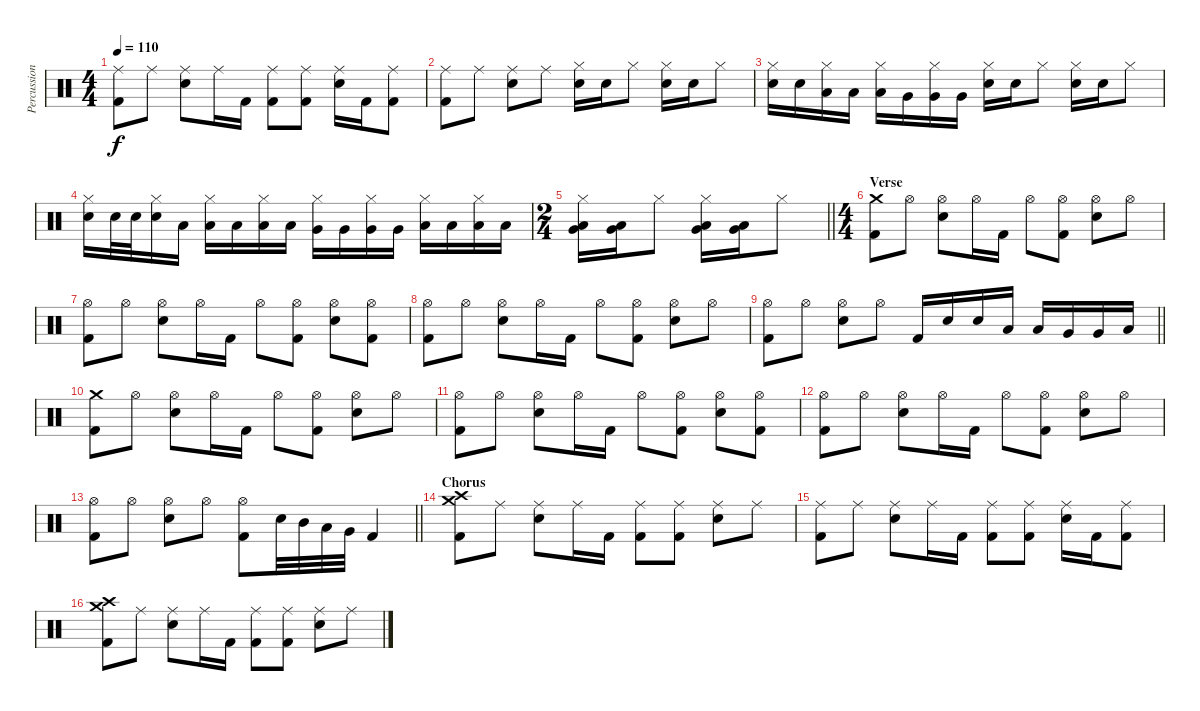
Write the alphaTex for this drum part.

\track ("Percussion" "Percussion") {instrument percussion}
\staff {score}
\articulation defaults
\ts (4 4)
\tempo 110
\clef neutral
\ks c
("Ride (middle)" "Kick (hit) 2").8{dy f} "Ride (middle)".8 ("Ride (middle)" "Snare (hit) 2").8 "Ride (middle)".16 "Kick (hit) 2".16 ("Ride (middle)" "Kick (hit) 2").8 ("Ride (middle)" "Kick (hit) 2").8 ("Ride (middle)" "Snare (hit) 2").16 "Kick (hit) 2".16 ("Ride (middle)" "Kick (hit) 2").8 |
("Ride (middle)" "Kick (hit) 2").8 "Ride (middle)".8 ("Ride (middle)" "Snare (hit) 2").8 "Ride (middle)".8 ("Hi-Hat (closed)" "Snare (hit) 2").16 "Snare (hit) 2".16 "Hi-Hat (closed)".8 ("Hi-Hat (closed)" "Snare (hit) 2").16 "Snare (hit) 2".16 "Hi-Hat (closed)".8 |
("Hi-Hat (closed)" "Snare (hit) 2").16 "Snare (hit) 2".16 ("Hi-Hat (closed)" "Low Tom (hit)").16 "Low Tom (hit)".16 ("Hi-Hat (closed)" "Low Tom (hit)").16 "Very Low Tom (hit)".16 ("Hi-Hat (closed)" "Very Low Tom (hit)").16 "Very Low Tom (hit)".16 ("Hi-Hat (closed)" "Snare (hit) 2").16 "Snare (hit) 2".16 "Hi-Hat (closed)".8 ("Hi-Hat (closed)" "Snare (hit) 2").16 "Snare (hit) 2".16 "Hi-Hat (closed)".8 |
("Hi-Hat (closed)" "Snare (hit) 2").16 "Snare (hit) 2".32 "Snare (hit) 2".32 ("Hi-Hat (closed)" "Snare (hit) 2").16 "Low Tom (hit)".16 ("Hi-Hat (closed)" "Low Tom (hit)").16 "Low Tom (hit)".16 ("Hi-Hat (closed)" "Low Tom (hit)").16 "Low Tom (hit)".16 ("Hi-Hat (closed)" "Very Low Tom (hit)").16 "Very Low Tom (hit)".16 ("Hi-Hat (closed)" "Very Low Tom (hit)").16 "Very Low Tom (hit)".16 ("Hi-Hat (closed)" "Low Floor Tom (hit)").16 "Low Floor Tom (hit)".16 ("Hi-Hat (closed)" "Low Floor Tom (hit)").16 "Low Floor Tom (hit)".16 |
\ts (2 4)
\barLineRight lightlight
("Hi-Hat (closed)" "Low Floor Tom (hit)" "Very Low Tom (hit)").16 ("Low Floor Tom (hit)" "Very Low Tom (hit)").16 "Hi-Hat (closed)".8 ("Hi-Hat (closed)" "Low Floor Tom (hit)" "Very Low Tom (hit)").16 ("Low Floor Tom (hit)" "Very Low Tom (hit)").16 "Hi-Hat (closed)".8 |
\ts (4 4)
\section ("" "Verse")
("Crash medium (hit)" "Kick (hit) 2").8 "Hi-Hat (open)".8 ("Hi-Hat (open)" "Snare (hit) 2").8 "Hi-Hat (open)".16 "Kick (hit) 2".16 "Hi-Hat (open)".8 ("Hi-Hat (open)" "Kick (hit) 2").8 ("Hi-Hat (open)" "Snare (hit) 2").8 "Hi-Hat (open)".8 |
("Hi-Hat (open)" "Kick (hit) 2").8 "Hi-Hat (open)".8 ("Hi-Hat (open)" "Snare (hit) 2").8 "Hi-Hat (open)".16 "Kick (hit) 2".16 "Hi-Hat (open)".8 ("Hi-Hat (open)" "Kick (hit) 2").8 ("Hi-Hat (open)" "Snare (hit) 2").8 ("Hi-Hat (open)" "Kick (hit) 2").8 |
("Hi-Hat (open)" "Kick (hit) 2").8 "Hi-Hat (open)".8 ("Hi-Hat (open)" "Snare (hit) 2").8 "Hi-Hat (open)".16 "Kick (hit) 2".16 "Hi-Hat (open)".8 ("Hi-Hat (open)" "Kick (hit) 2").8 ("Hi-Hat (open)" "Snare (hit) 2").8 "Hi-Hat (open)".8 |
\barLineRight lightlight
("Hi-Hat (open)" "Kick (hit) 2").8 "Hi-Hat (open)".8 ("Hi-Hat (open)" "Snare (hit) 2").8 "Hi-Hat (open)".8 "Kick (hit) 2".16 "Snare (hit) 2".16 "Snare (hit) 2".16 "Low Tom (hit)".16 "Low Tom (hit)".16 "Very Low Tom (hit)".16 "Very Low Tom (hit)".16 "Low Floor Tom (hit)".16 |
("Crash medium (hit)" "Kick (hit) 2").8 "Hi-Hat (open)".8 ("Hi-Hat (open)" "Snare (hit) 2").8 "Hi-Hat (open)".16 "Kick (hit) 2".16 "Hi-Hat (open)".8 ("Hi-Hat (open)" "Kick (hit) 2").8 ("Hi-Hat (open)" "Snare (hit) 2").8 "Hi-Hat (open)".8 |
("Hi-Hat (open)" "Kick (hit) 2").8 "Hi-Hat (open)".8 ("Hi-Hat (open)" "Snare (hit) 2").8 "Hi-Hat (open)".16 "Kick (hit) 2".16 "Hi-Hat (open)".8 ("Hi-Hat (open)" "Kick (hit) 2").8 ("Hi-Hat (open)" "Snare (hit) 2").8 ("Hi-Hat (open)" "Kick (hit) 2").8 |
("Hi-Hat (open)" "Kick (hit) 2").8 "Hi-Hat (open)".8 ("Hi-Hat (open)" "Snare (hit) 2").8 "Hi-Hat (open)".16 "Kick (hit) 2".16 "Hi-Hat (open)".8 ("Hi-Hat (open)" "Kick (hit) 2").8 ("Hi-Hat (open)" "Snare (hit) 2").8 "Hi-Hat (open)".8 |
\barLineRight lightlight
("Hi-Hat (open)" "Kick (hit) 2").8 "Hi-Hat (open)".8 ("Hi-Hat (open)" "Snare (hit) 2").8 "Hi-Hat (open)".8 ("Hi-Hat (open)" "Kick (hit) 2").8 "Snare (hit) 2".32 "Mid Tom (hit)".32 "Low Tom (hit)".32 "Very Low Tom (hit)".32 "Kick (hit) 2".4 |
\section ("" "Chorus")
("Crash medium (hit)" "Crash high (hit)" "Kick (hit) 2").8 "Ride (middle)".8 ("Ride (middle)" "Snare (hit) 2").8 "Ride (middle)".16 "Kick (hit) 2".16 ("Ride (middle)" "Kick (hit) 2").8 ("Ride (middle)" "Kick (hit) 2").8 ("Ride (middle)" "Snare (hit) 2").8 "Ride (middle)".8 |
("Ride (middle)" "Kick (hit) 2").8 "Ride (middle)".8 ("Ride (middle)" "Snare (hit) 2").8 "Ride (middle)".16 "Kick (hit) 2".16 ("Ride (middle)" "Kick (hit) 2").8 ("Ride (middle)" "Kick (hit) 2").8 ("Ride (middle)" "Snare (hit) 2").16 "Kick (hit) 2".16 ("Ride (middle)" "Kick (hit) 2").8 |
("Crash medium (hit)" "Crash high (hit)" "Kick (hit) 2").8 "Ride (middle)".8 ("Ride (middle)" "Snare (hit) 2").8 "Ride (middle)".16 "Kick (hit) 2".16 ("Ride (middle)" "Kick (hit) 2").8 ("Ride (middle)" "Kick (hit) 2").8 ("Ride (middle)" "Snare (hit) 2").8 "Ride (middle)".8
